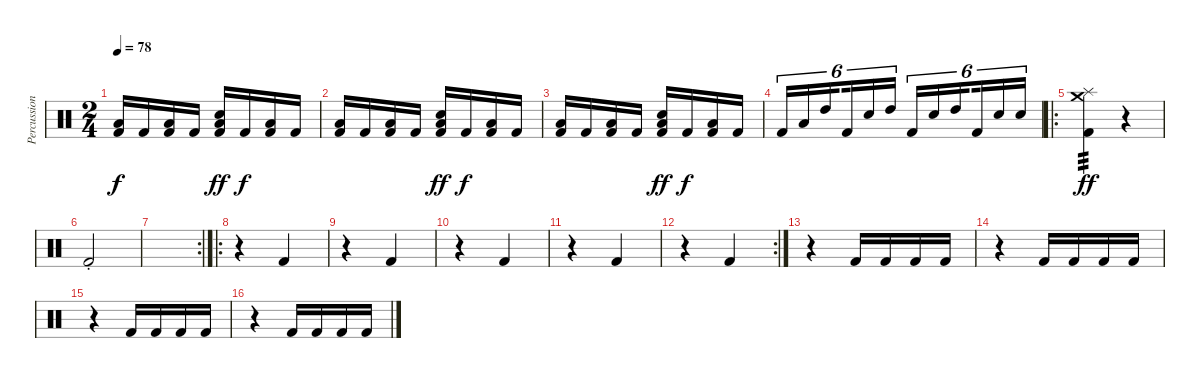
\track ("Percussion" "Percussion") {instrument percussion}
\staff {score}
\articulation defaults
\ts (2 4)
\tempo 78
\clef neutral
\ks c
("Kick (hit) 2" "Low Tom (hit)").16{dy f} "Kick (hit) 2".16 ("Kick (hit) 2" "Low Tom (hit)").16 "Kick (hit) 2".16 ("Kick (hit) 2" "Snare (hit) 2" "Low Tom (hit)").16{dy ff} "Kick (hit) 2".16{dy f} ("Kick (hit) 2" "Low Tom (hit)").16 "Kick (hit) 2".16 |
("Kick (hit) 2" "Low Tom (hit)").16 "Kick (hit) 2".16 ("Kick (hit) 2" "Low Tom (hit)").16 "Kick (hit) 2".16 ("Kick (hit) 2" "Snare (hit) 2" "Low Tom (hit)").16{dy ff} "Kick (hit) 2".16{dy f} ("Kick (hit) 2" "Low Tom (hit)").16 "Kick (hit) 2".16 |
("Kick (hit) 2" "Low Tom (hit)").16 "Kick (hit) 2".16 ("Kick (hit) 2" "Low Tom (hit)").16 "Kick (hit) 2".16 ("Kick (hit) 2" "Snare (hit) 2" "Low Tom (hit)").16{dy ff} "Kick (hit) 2".16{dy f} ("Kick (hit) 2" "Low Tom (hit)").16 "Kick (hit) 2".16 |
"Kick (hit) 2".16{tu (6 4)} "Low Tom (hit)".16{tu (6 4)} "High Tom (hit)".16{tu (6 4) beam splitsecondary} "Kick (hit) 2".16{tu (6 4)} "Snare (hit) 2".16{tu (6 4)} "High Tom (hit)".16{tu (6 4)} "Kick (hit) 2".16{tu (6 4)} "Metronome (bell)".16{tu (6 4)} "High Tom (hit)".16{tu (6 4) beam splitsecondary} "Kick (hit) 2".16{tu (6 4)} "Snare (hit) 2".16{tu (6 4)} "Snare (hit) 2".16{tu (6 4)} |
\ro
("Kick (hit) 2" "Crash medium (hit)" "Splash (hit)").4{tp 3 dy ff} r.4 |
"Kick (hit) 2"{st}.2 |
\rc 2
|
\ro
r.4 "Kick (hit) 2".4 |
r.4 "Kick (hit) 2".4 |
r.4 "Kick (hit) 2".4 |
r.4 "Kick (hit) 2".4 |
\rc 2
r.4 "Kick (hit) 2".4 |
r.4 "Kick (hit) 2".16 "Kick (hit) 2".16 "Kick (hit) 2".16 "Kick (hit) 2".16 |
r.4 "Kick (hit) 2".16 "Kick (hit) 2".16 "Kick (hit) 2".16 "Kick (hit) 2".16 |
r.4 "Kick (hit) 2".16 "Kick (hit) 2".16 "Kick (hit) 2".16 "Kick (hit) 2".16 |
r.4 "Kick (hit) 2".16 "Kick (hit) 2".16 "Kick (hit) 2".16 "Kick (hit) 2".16
